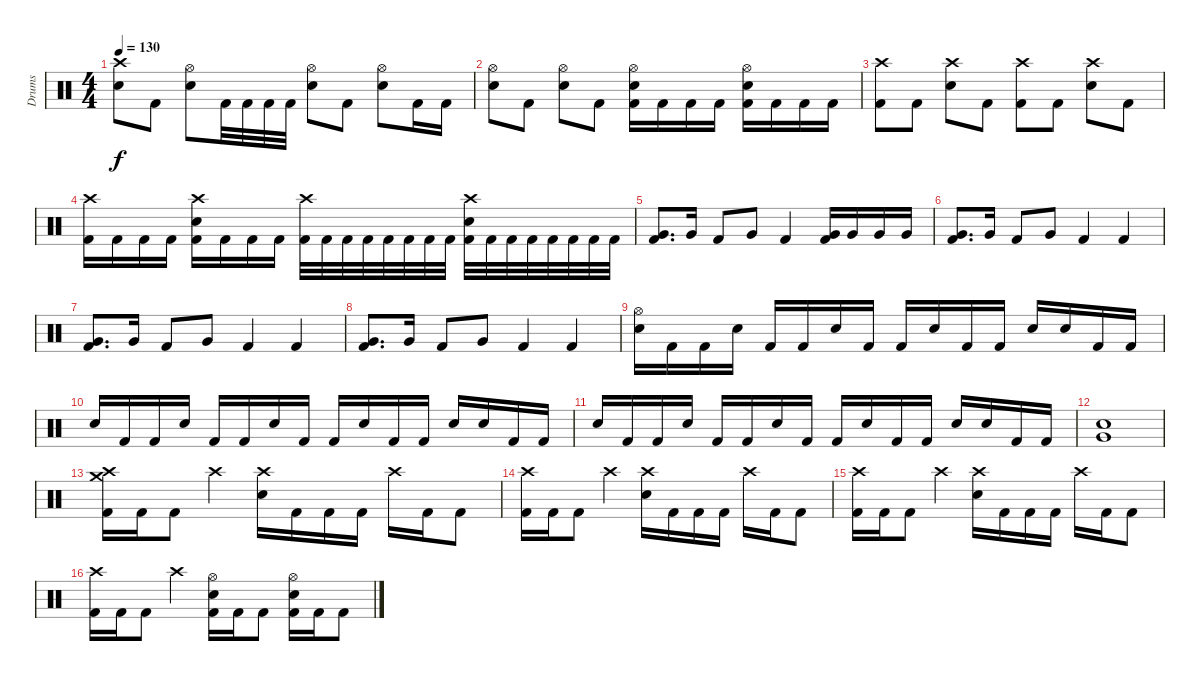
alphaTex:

\track ("Drums" "Drums") {instrument percussion}
\staff {score}
\articulation defaults
\ts (4 4)
\tempo 130
\clef neutral
\ks c
("Crash high (hit)" "Electric Snare (hit)").8{dy f} "Kick (hit) 2".8 ("Hi-Hat (open)" "Electric Snare (hit)").8 "Kick (hit) 2".32 "Kick (hit) 2".32 "Kick (hit) 2".32 "Kick (hit) 2".32 ("Hi-Hat (open)" "Electric Snare (hit)").8 "Kick (hit) 2".8 ("Hi-Hat (open)" "Electric Snare (hit)").8 "Kick (hit) 2".16 "Kick (hit) 2".16 |
("Hi-Hat (open)" "Electric Snare (hit)").8 "Kick (hit) 2".8 ("Hi-Hat (open)" "Electric Snare (hit)").8 "Kick (hit) 2".8 ("Hi-Hat (open)" "Electric Snare (hit)" "Kick (hit) 2").16 "Kick (hit) 2".16 "Kick (hit) 2".16 "Kick (hit) 2".16 ("Hi-Hat (open)" "Electric Snare (hit)" "Kick (hit) 2").16 "Kick (hit) 2".16 "Kick (hit) 2".16 "Kick (hit) 2".16 |
("Crash high (hit)" "Kick (hit) 2").8 "Kick (hit) 2".8 ("Crash high (hit)" "Electric Snare (hit)").8 "Kick (hit) 2".8 ("Crash high (hit)" "Kick (hit) 2").8 "Kick (hit) 2".8 ("Crash high (hit)" "Electric Snare (hit)").8 "Kick (hit) 2".8 |
("Crash high (hit)" "Kick (hit) 2").16 "Kick (hit) 2".16 "Kick (hit) 2".16 "Kick (hit) 2".16 ("Crash high (hit)" "Electric Snare (hit)" "Kick (hit) 2").16 "Kick (hit) 2".16 "Kick (hit) 2".16 "Kick (hit) 2".16 ("Crash high (hit)" "Kick (hit) 2").32 "Kick (hit) 2".32 "Kick (hit) 2".32 "Kick (hit) 2".32 "Kick (hit) 2".32 "Kick (hit) 2".32 "Kick (hit) 2".32 "Kick (hit) 2".32 ("Crash high (hit)" "Electric Snare (hit)" "Kick (hit) 2").32 "Kick (hit) 2".32 "Kick (hit) 2".32 "Kick (hit) 2".32 "Kick (hit) 2".32 "Kick (hit) 2".32 "Kick (hit) 2".32 "Kick (hit) 2".32 |
("Very Low Tom (hit)" "Kick (hit) 2").8{d} "Very Low Tom (hit)".16 "Kick (hit) 2".8 "Very Low Tom (hit)".8 "Kick (hit) 2".4 ("Very Low Tom (hit)" "Kick (hit) 2").16 "Very Low Tom (hit)".16 "Very Low Tom (hit)".16 "Very Low Tom (hit)".16 |
("Very Low Tom (hit)" "Kick (hit) 2").8{d} "Very Low Tom (hit)".16 "Kick (hit) 2".8 "Very Low Tom (hit)".8 "Kick (hit) 2".4 "Kick (hit) 2".4 |
("Very Low Tom (hit)" "Kick (hit) 2").8{d} "Very Low Tom (hit)".16 "Kick (hit) 2".8 "Very Low Tom (hit)".8 "Kick (hit) 2".4 "Kick (hit) 2".4 |
("Very Low Tom (hit)" "Kick (hit) 2").8{d} "Very Low Tom (hit)".16 "Kick (hit) 2".8 "Very Low Tom (hit)".8 "Kick (hit) 2".4 "Kick (hit) 2".4 |
("Hi-Hat (open)" "Electric Snare (hit)").16 "Kick (hit) 2".16 "Kick (hit) 2".16 "Electric Snare (hit)".16 "Kick (hit) 2".16 "Kick (hit) 2".16 "Electric Snare (hit)".16 "Kick (hit) 2".16 "Kick (hit) 2".16 "Electric Snare (hit)".16 "Kick (hit) 2".16 "Kick (hit) 2".16 "Electric Snare (hit)".16 "Electric Snare (hit)".16 "Kick (hit) 2".16 "Kick (hit) 2".16 |
"Electric Snare (hit)".16 "Kick (hit) 2".16 "Kick (hit) 2".16 "Electric Snare (hit)".16 "Kick (hit) 2".16 "Kick (hit) 2".16 "Electric Snare (hit)".16 "Kick (hit) 2".16 "Kick (hit) 2".16 "Electric Snare (hit)".16 "Kick (hit) 2".16 "Kick (hit) 2".16 "Electric Snare (hit)".16 "Electric Snare (hit)".16 "Kick (hit) 2".16 "Kick (hit) 2".16 |
"Electric Snare (hit)".16 "Kick (hit) 2".16 "Kick (hit) 2".16 "Electric Snare (hit)".16 "Kick (hit) 2".16 "Kick (hit) 2".16 "Electric Snare (hit)".16 "Kick (hit) 2".16 "Kick (hit) 2".16 "Electric Snare (hit)".16 "Kick (hit) 2".16 "Kick (hit) 2".16 "Electric Snare (hit)".16 "Electric Snare (hit)".16 "Kick (hit) 2".16 "Kick (hit) 2".16 |
("Very Low Tom (hit)" "Electric Snare (hit)").1 |
("Crash high (hit)" "Crash medium (hit)" "Kick (hit) 2").16 "Kick (hit) 2".16 "Kick (hit) 2".8 "Crash high (hit)".4 ("Crash high (hit)" "Electric Snare (hit)").16 "Kick (hit) 2".16 "Kick (hit) 2".16 "Kick (hit) 2".16 "Crash high (hit)".16 "Kick (hit) 2".16 "Kick (hit) 2".8 |
("Crash high (hit)" "Kick (hit) 2").16 "Kick (hit) 2".16 "Kick (hit) 2".8 "Crash high (hit)".4 ("Crash high (hit)" "Electric Snare (hit)").16 "Kick (hit) 2".16 "Kick (hit) 2".16 "Kick (hit) 2".16 "Crash high (hit)".16 "Kick (hit) 2".16 "Kick (hit) 2".8 |
("Crash high (hit)" "Kick (hit) 2").16 "Kick (hit) 2".16 "Kick (hit) 2".8 "Crash high (hit)".4 ("Crash high (hit)" "Electric Snare (hit)").16 "Kick (hit) 2".16 "Kick (hit) 2".16 "Kick (hit) 2".16 "Crash high (hit)".16 "Kick (hit) 2".16 "Kick (hit) 2".8 |
("Crash high (hit)" "Kick (hit) 2").16 "Kick (hit) 2".16 "Kick (hit) 2".8 "Crash high (hit)".4 ("Hi-Hat (open)" "Electric Snare (hit)" "Kick (hit) 2").16 "Kick (hit) 2".16 "Kick (hit) 2".8 ("Hi-Hat (open)" "Electric Snare (hit)" "Kick (hit) 2").16 "Kick (hit) 2".16 "Kick (hit) 2".8
